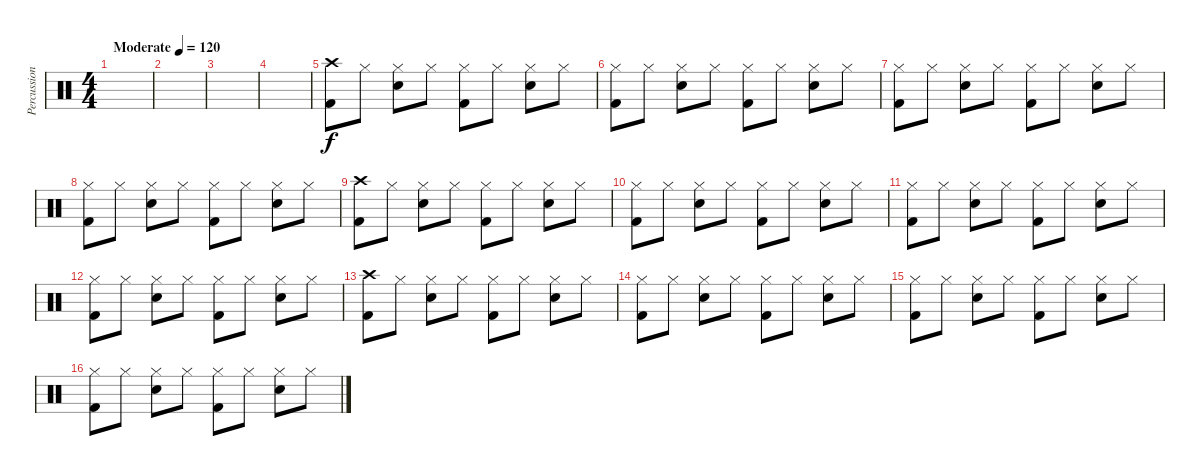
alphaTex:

\track ("Percussion" "Percussion") {instrument percussion}
\staff {score}
\articulation defaults
\ts (4 4)
\tempo (120 "Moderate")
\clef neutral
\ks c
|
|
|
|
("Crash high (hit)" "Kick (hit) 2").8 "Hi-Hat (closed)".8 ("Hi-Hat (closed)" "Electric Snare (hit)").8 "Hi-Hat (closed)".8 ("Hi-Hat (closed)" "Kick (hit) 2").8 "Hi-Hat (closed)".8 ("Hi-Hat (closed)" "Electric Snare (hit)").8 "Hi-Hat (closed)".8 |
("Hi-Hat (closed)" "Kick (hit) 2").8 "Hi-Hat (closed)".8 ("Hi-Hat (closed)" "Electric Snare (hit)").8 "Hi-Hat (closed)".8 ("Hi-Hat (closed)" "Kick (hit) 2").8 "Hi-Hat (closed)".8 ("Hi-Hat (closed)" "Electric Snare (hit)").8 "Hi-Hat (closed)".8 |
("Hi-Hat (closed)" "Kick (hit) 2").8 "Hi-Hat (closed)".8 ("Hi-Hat (closed)" "Electric Snare (hit)").8 "Hi-Hat (closed)".8 ("Hi-Hat (closed)" "Kick (hit) 2").8 "Hi-Hat (closed)".8 ("Hi-Hat (closed)" "Electric Snare (hit)").8 "Hi-Hat (closed)".8 |
("Hi-Hat (closed)" "Kick (hit) 2").8 "Hi-Hat (closed)".8 ("Hi-Hat (closed)" "Electric Snare (hit)").8 "Hi-Hat (closed)".8 ("Hi-Hat (closed)" "Kick (hit) 2").8 "Hi-Hat (closed)".8 ("Hi-Hat (closed)" "Electric Snare (hit)").8 "Hi-Hat (closed)".8 |
("Crash high (hit)" "Kick (hit) 2").8 "Hi-Hat (closed)".8 ("Hi-Hat (closed)" "Electric Snare (hit)").8 "Hi-Hat (closed)".8 ("Hi-Hat (closed)" "Kick (hit) 2").8 "Hi-Hat (closed)".8 ("Hi-Hat (closed)" "Electric Snare (hit)").8 "Hi-Hat (closed)".8 |
("Hi-Hat (closed)" "Kick (hit) 2").8 "Hi-Hat (closed)".8 ("Hi-Hat (closed)" "Electric Snare (hit)").8 "Hi-Hat (closed)".8 ("Hi-Hat (closed)" "Kick (hit) 2").8 "Hi-Hat (closed)".8 ("Hi-Hat (closed)" "Electric Snare (hit)").8 "Hi-Hat (closed)".8 |
("Hi-Hat (closed)" "Kick (hit) 2").8 "Hi-Hat (closed)".8 ("Hi-Hat (closed)" "Electric Snare (hit)").8 "Hi-Hat (closed)".8 ("Hi-Hat (closed)" "Kick (hit) 2").8 "Hi-Hat (closed)".8 ("Hi-Hat (closed)" "Electric Snare (hit)").8 "Hi-Hat (closed)".8 |
("Hi-Hat (closed)" "Kick (hit) 2").8 "Hi-Hat (closed)".8 ("Hi-Hat (closed)" "Electric Snare (hit)").8 "Hi-Hat (closed)".8 ("Hi-Hat (closed)" "Kick (hit) 2").8 "Hi-Hat (closed)".8 ("Hi-Hat (closed)" "Electric Snare (hit)").8 "Hi-Hat (closed)".8 |
("Crash high (hit)" "Kick (hit) 2").8 "Hi-Hat (closed)".8 ("Hi-Hat (closed)" "Electric Snare (hit)").8 "Hi-Hat (closed)".8 ("Hi-Hat (closed)" "Kick (hit) 2").8 "Hi-Hat (closed)".8 ("Hi-Hat (closed)" "Electric Snare (hit)").8 "Hi-Hat (closed)".8 |
("Hi-Hat (closed)" "Kick (hit) 2").8 "Hi-Hat (closed)".8 ("Hi-Hat (closed)" "Electric Snare (hit)").8 "Hi-Hat (closed)".8 ("Hi-Hat (closed)" "Kick (hit) 2").8 "Hi-Hat (closed)".8 ("Hi-Hat (closed)" "Electric Snare (hit)").8 "Hi-Hat (closed)".8 |
("Hi-Hat (closed)" "Kick (hit) 2").8 "Hi-Hat (closed)".8 ("Hi-Hat (closed)" "Electric Snare (hit)").8 "Hi-Hat (closed)".8 ("Hi-Hat (closed)" "Kick (hit) 2").8 "Hi-Hat (closed)".8 ("Hi-Hat (closed)" "Electric Snare (hit)").8 "Hi-Hat (closed)".8 |
("Hi-Hat (closed)" "Kick (hit) 2").8 "Hi-Hat (closed)".8 ("Hi-Hat (closed)" "Electric Snare (hit)").8 "Hi-Hat (closed)".8 ("Hi-Hat (closed)" "Kick (hit) 2").8 "Hi-Hat (closed)".8 ("Hi-Hat (closed)" "Electric Snare (hit)").8 "Hi-Hat (closed)".8
